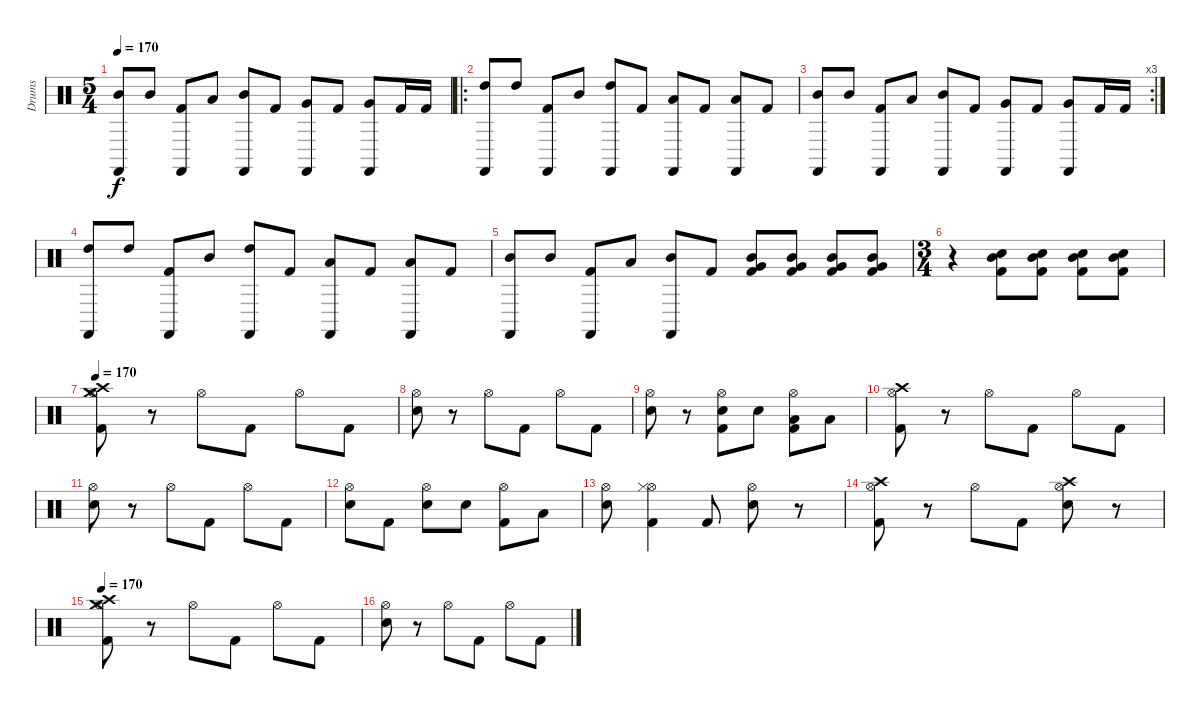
\track ("Drums" "Drums") {instrument percussion}
\staff {score}
\articulation defaults
\ts (5 4)
\tempo 170
\clef neutral
\ks c
("Mid Tom (hit)" "Castanets (hit)").8{dy f} "Mid Tom (hit)".8 ("Castanets (hit)" "Kick (hit) 2").8 "Low Tom (hit)".8 ("Mid Tom (hit)" "Castanets (hit)").8 "Kick (hit) 2".8 ("Very Low Tom (hit)" "Castanets (hit)").8 "Kick (hit) 2".8 ("Very Low Tom (hit)" "Castanets (hit)").8 "Kick (hit) 2".16 "Kick (hit) 2".16 |
\ro
("High Tom (hit)" "Castanets (hit)").8 "High Tom (hit)".8 ("Castanets (hit)" "Kick (hit) 2").8 "Mid Tom (hit)".8 ("High Tom (hit)" "Castanets (hit)").8 "Kick (hit) 2".8 ("Low Tom (hit)" "Castanets (hit)").8 "Kick (hit) 2".8 ("Low Tom (hit)" "Castanets (hit)").8 "Kick (hit) 2".8 |
\rc 3
("Mid Tom (hit)" "Castanets (hit)").8 "Mid Tom (hit)".8 ("Castanets (hit)" "Kick (hit) 2").8 "Low Tom (hit)".8 ("Mid Tom (hit)" "Castanets (hit)").8 "Kick (hit) 2".8 ("Very Low Tom (hit)" "Castanets (hit)").8 "Kick (hit) 2".8 ("Very Low Tom (hit)" "Castanets (hit)").8 "Kick (hit) 2".16 "Kick (hit) 2".16 |
("High Tom (hit)" "Castanets (hit)").8 "High Tom (hit)".8 ("Castanets (hit)" "Kick (hit) 2").8 "Mid Tom (hit)".8 ("High Tom (hit)" "Castanets (hit)").8 "Kick (hit) 2".8 ("Low Tom (hit)" "Castanets (hit)").8 "Kick (hit) 2".8 ("Low Tom (hit)" "Castanets (hit)").8 "Kick (hit) 2".8 |
("Mid Tom (hit)" "Castanets (hit)").8 "Mid Tom (hit)".8 ("Castanets (hit)" "Kick (hit) 2").8 "Low Tom (hit)".8 ("Mid Tom (hit)" "Castanets (hit)").8 "Kick (hit) 2".8 ("Very Low Tom (hit)" "Mid Tom (hit)" "Kick (hit) 2").8 ("Very Low Tom (hit)" "Mid Tom (hit)" "Kick (hit) 2").8 ("Very Low Tom (hit)" "Mid Tom (hit)" "Kick (hit) 2").8 ("Very Low Tom (hit)" "Mid Tom (hit)" "Kick (hit) 2").8 |
\ts (3 4)
r.4 ("Mid Tom (hit)" "Electric Snare (hit)" "Kick (hit) 2").8 ("Mid Tom (hit)" "Electric Snare (hit)" "Kick (hit) 2").8 ("Mid Tom (hit)" "Electric Snare (hit)" "Kick (hit) 2").8 ("Mid Tom (hit)" "Electric Snare (hit)" "Kick (hit) 2").8 |
\tempo 170
("Hi-Hat (open)" "Crash high (hit)" "Crash medium (hit)" "Kick (hit) 2").8 r.8 "Hi-Hat (open)".8 "Kick (hit) 2".8 "Hi-Hat (open)".8 "Kick (hit) 2".8 |
("Hi-Hat (open)" "Electric Snare (hit)").8 r.8 "Hi-Hat (open)".8 "Kick (hit) 2".8 "Hi-Hat (open)".8 "Kick (hit) 2".8 |
("Hi-Hat (open)" "Electric Snare (hit)").8 r.8 ("Hi-Hat (open)" "Electric Snare (hit)" "Kick (hit) 2").8 "Electric Snare (hit)".8 ("Hi-Hat (open)" "Low Tom (hit)" "Kick (hit) 2").8 "Low Tom (hit)".8 |
("Hi-Hat (open)" "Crash high (hit)" "Kick (hit) 2").8 r.8 "Hi-Hat (open)".8 "Kick (hit) 2".8 "Hi-Hat (open)".8 "Kick (hit) 2".8 |
("Hi-Hat (open)" "Electric Snare (hit)").8 r.8 "Hi-Hat (open)".8 "Kick (hit) 2".8 "Hi-Hat (open)".8 "Kick (hit) 2".8 |
("Hi-Hat (open)" "Electric Snare (hit)").8 "Kick (hit) 2".8 ("Hi-Hat (open)" "Electric Snare (hit)").8 "Electric Snare (hit)".8 ("Hi-Hat (open)" "Kick (hit) 2").8 "Low Tom (hit)".8 |
("Hi-Hat (open)" "Electric Snare (hit)").8 ("Hi-Hat (open)" "Hi-Hat (closed)" "Kick (hit) 2").4 "Kick (hit) 2".8 ("Hi-Hat (open)" "Electric Snare (hit)").8 r.8 |
("Hi-Hat (open)" "Crash high (hit)" "Kick (hit) 2").8 r.8 "Hi-Hat (open)".8 "Kick (hit) 2".8 ("Hi-Hat (open)" "Electric Snare (hit)" "Crash high (hit)").8 r.8 |
\tempo 170
("Hi-Hat (open)" "Crash high (hit)" "Crash medium (hit)" "Kick (hit) 2").8 r.8 "Hi-Hat (open)".8 "Kick (hit) 2".8 "Hi-Hat (open)".8 "Kick (hit) 2".8 |
("Hi-Hat (open)" "Electric Snare (hit)").8 r.8 "Hi-Hat (open)".8 "Kick (hit) 2".8 "Hi-Hat (open)".8 "Kick (hit) 2".8
